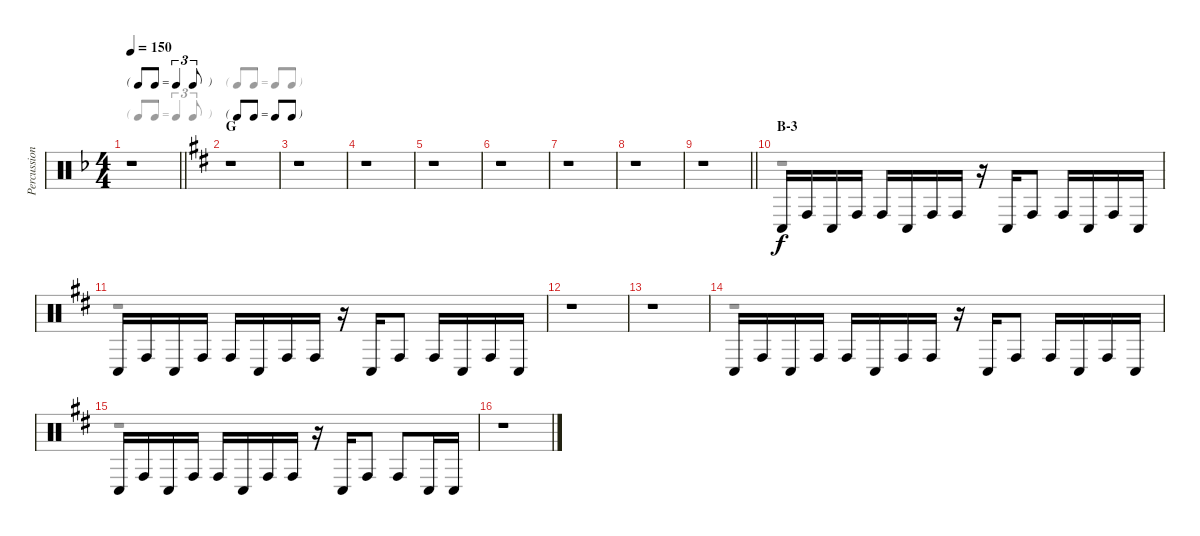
\track ("Percussion" "Percussion") {instrument percussion}
\staff {score}
\articulation defaults
\voice
\ts (4 4)
\tf triplet8th
\tempo 150
\clef neutral
\barLineRight lightlight
\ks f
r.1{dy f} |
\tf none
\section ("" "G")
\ks d
r.1 |
r.1 |
r.1 |
r.1 |
r.1 |
r.1 |
r.1 |
\barLineRight lightlight
r.1 |
\section ("" "B-3")
"Conga low (hit)".16 "Conga high (hit)".16 "Conga low (hit)".16 "Conga high (hit)".16 "Conga high (hit)".16 "Conga low (hit)".16 "Conga high (hit)".16 "Conga high (hit)".16 r.16 "Conga low (hit)".16 "Conga high (hit)".8 "Conga high (hit)".16 "Conga low (hit)".16 "Conga high (hit)".16 "Conga low (hit)".16 |
"Conga low (hit)".16 "Conga high (hit)".16 "Conga low (hit)".16 "Conga high (hit)".16 "Conga high (hit)".16 "Conga low (hit)".16 "Conga high (hit)".16 "Conga high (hit)".16 r.16 "Conga low (hit)".16 "Conga high (hit)".8 "Conga high (hit)".16 "Conga low (hit)".16 "Conga high (hit)".16 "Conga low (hit)".16 |
r.1 |
r.1 |
"Conga low (hit)".16 "Conga high (hit)".16 "Conga low (hit)".16 "Conga high (hit)".16 "Conga high (hit)".16 "Conga low (hit)".16 "Conga high (hit)".16 "Conga high (hit)".16 r.16 "Conga low (hit)".16 "Conga high (hit)".8 "Conga high (hit)".16 "Conga low (hit)".16 "Conga high (hit)".16 "Conga low (hit)".16 |
"Conga low (hit)".16 "Conga high (hit)".16 "Conga low (hit)".16 "Conga high (hit)".16 "Conga high (hit)".16 "Conga low (hit)".16 "Conga high (hit)".16 "Conga high (hit)".16 r.16 "Conga low (hit)".16 "Conga high (hit)".8 "Conga high (hit)".8 "Conga low (hit)".16 "Conga low (hit)".16 |
r.1
\voice
\clef neutral
\ottava regular
\simile none
\barLineRight lightlight
\ks f
r.1{dy f} |
\ks d
r.1 |
r.1 |
r.1 |
r.1 |
r.1 |
r.1 |
r.1 |
\barLineRight lightlight
r.1 |
r.1 |
r.1 |
r.1 |
r.1 |
r.1 |
r.1 |
r.1
